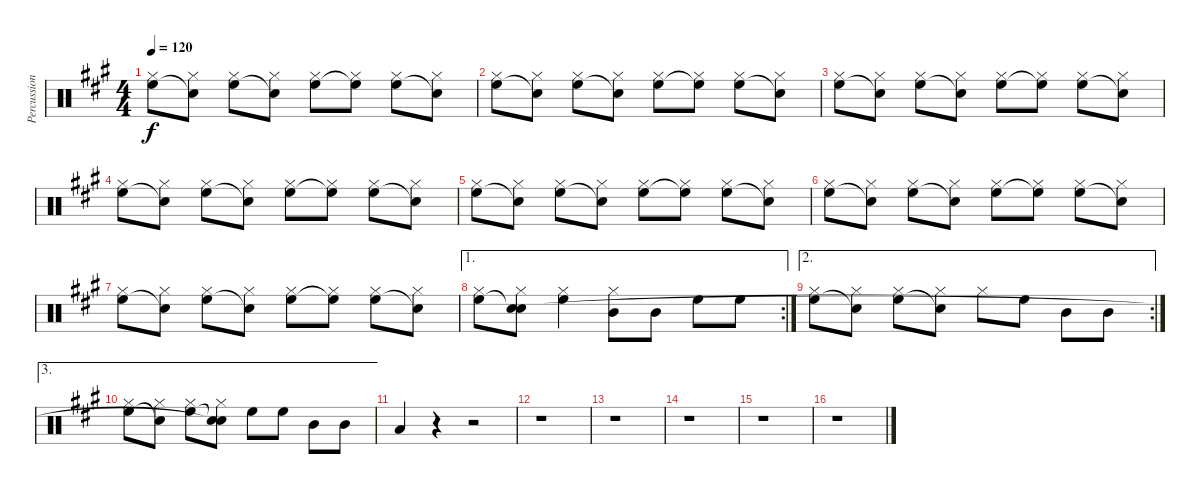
\track ("Percussion" "Percussion") {instrument percussion}
\staff {score}
\articulation defaults
\ts (4 4)
\tempo 120
\clef neutral
\ks a
("Hi-Hat (closed)" "High Floor Tom (hit)").8{dy f} ("Hi-Hat (closed)" "Snare (hit)"{t}).8 ("Hi-Hat (closed)" "High Floor Tom (hit)").8 ("Hi-Hat (closed)" "Snare (hit)"{t}).8 ("Hi-Hat (closed)" "High Floor Tom (hit)").8 ("Hi-Hat (closed)" "High Floor Tom (hit)"{t}).8 ("Hi-Hat (closed)" "High Floor Tom (hit)").8 ("Hi-Hat (closed)" "Snare (hit)"{t}).8 |
("Hi-Hat (closed)" "High Floor Tom (hit)").8 ("Hi-Hat (closed)" "Snare (hit)"{t}).8 ("Hi-Hat (closed)" "High Floor Tom (hit)").8 ("Hi-Hat (closed)" "Snare (hit)"{t}).8 ("Hi-Hat (closed)" "High Floor Tom (hit)").8 ("Hi-Hat (closed)" "High Floor Tom (hit)"{t}).8 ("Hi-Hat (closed)" "High Floor Tom (hit)").8 ("Hi-Hat (closed)" "Snare (hit)"{t}).8 |
("Hi-Hat (closed)" "High Floor Tom (hit)").8 ("Hi-Hat (closed)" "Snare (hit)"{t}).8 ("Hi-Hat (closed)" "High Floor Tom (hit)").8 ("Hi-Hat (closed)" "Snare (hit)"{t}).8 ("Hi-Hat (closed)" "High Floor Tom (hit)").8 ("Hi-Hat (closed)" "High Floor Tom (hit)"{t}).8 ("Hi-Hat (closed)" "High Floor Tom (hit)").8 ("Hi-Hat (closed)" "Snare (hit)"{t}).8 |
("Hi-Hat (closed)" "High Floor Tom (hit)").8 ("Hi-Hat (closed)" "Snare (hit)"{t}).8 ("Hi-Hat (closed)" "High Floor Tom (hit)").8 ("Hi-Hat (closed)" "Snare (hit)"{t}).8 ("Hi-Hat (closed)" "High Floor Tom (hit)").8 ("Hi-Hat (closed)" "High Floor Tom (hit)"{t}).8 ("Hi-Hat (closed)" "High Floor Tom (hit)").8 ("Hi-Hat (closed)" "Snare (hit)"{t}).8 |
("Hi-Hat (closed)" "High Floor Tom (hit)").8 ("Hi-Hat (closed)" "Snare (hit)"{t}).8 ("Hi-Hat (closed)" "High Floor Tom (hit)").8 ("Hi-Hat (closed)" "Snare (hit)"{t}).8 ("Hi-Hat (closed)" "High Floor Tom (hit)").8 ("Hi-Hat (closed)" "High Floor Tom (hit)"{t}).8 ("Hi-Hat (closed)" "High Floor Tom (hit)").8 ("Hi-Hat (closed)" "Snare (hit)"{t}).8 |
("Hi-Hat (closed)" "High Floor Tom (hit)").8 ("Hi-Hat (closed)" "Snare (hit)"{t}).8 ("Hi-Hat (closed)" "High Floor Tom (hit)").8 ("Hi-Hat (closed)" "Snare (hit)"{t}).8 ("Hi-Hat (closed)" "High Floor Tom (hit)").8 ("Hi-Hat (closed)" "High Floor Tom (hit)"{t}).8 ("Hi-Hat (closed)" "High Floor Tom (hit)").8 ("Hi-Hat (closed)" "Snare (hit)"{t}).8 |
("Hi-Hat (closed)" "High Floor Tom (hit)").8 ("Hi-Hat (closed)" "Snare (hit)"{t}).8 ("Hi-Hat (closed)" "High Floor Tom (hit)").8 ("Hi-Hat (closed)" "Snare (hit)"{t}).8 ("Hi-Hat (closed)" "High Floor Tom (hit)").8 ("Hi-Hat (closed)" "High Floor Tom (hit)"{t}).8 ("Hi-Hat (closed)" "High Floor Tom (hit)").8 ("Hi-Hat (closed)" "Snare (hit)"{t}).8 |
\ae 1
\rc 2
("Hi-Hat (closed)" "High Floor Tom (hit)").8 ("Hi-Hat (closed)" "Snare (hit)"{t} "Snare (hit)").8 ("Hi-Hat (closed)" "High Floor Tom (hit)").4 ("Hi-Hat (closed)" "Mid Tom (hit)").8 "Mid Tom (hit)".8 "High Floor Tom (hit)".8 "High Floor Tom (hit)".8 |
\ae 2
\rc 2
("Hi-Hat (closed)" "High Floor Tom (hit)").8 ("Hi-Hat (closed)" "Snare (hit)"{t}).8 ("Hi-Hat (closed)" "High Floor Tom (hit)").8 ("Hi-Hat (closed)" "Snare (hit)"{t}).8 "Hi-Hat (closed)".8 "High Floor Tom (hit)".8 "Mid Tom (hit)".8 "Mid Tom (hit)".8 |
\ae 3
("Hi-Hat (closed)" "High Floor Tom (hit)").8 ("Hi-Hat (closed)" "Snare (hit)"{t}).8 ("Hi-Hat (closed)" "High Floor Tom (hit)").8 ("Hi-Hat (closed)" "Snare (hit)"{t} "Snare (hit)"{t}).8 "High Floor Tom (hit)".8 "High Floor Tom (hit)".8 "Mid Tom (hit)".8 "Mid Tom (hit)".8 |
"Low Floor Tom (hit)".4 r.4 r.2 |
r.1 |
r.1 |
r.1 |
r.1 |
r.1
